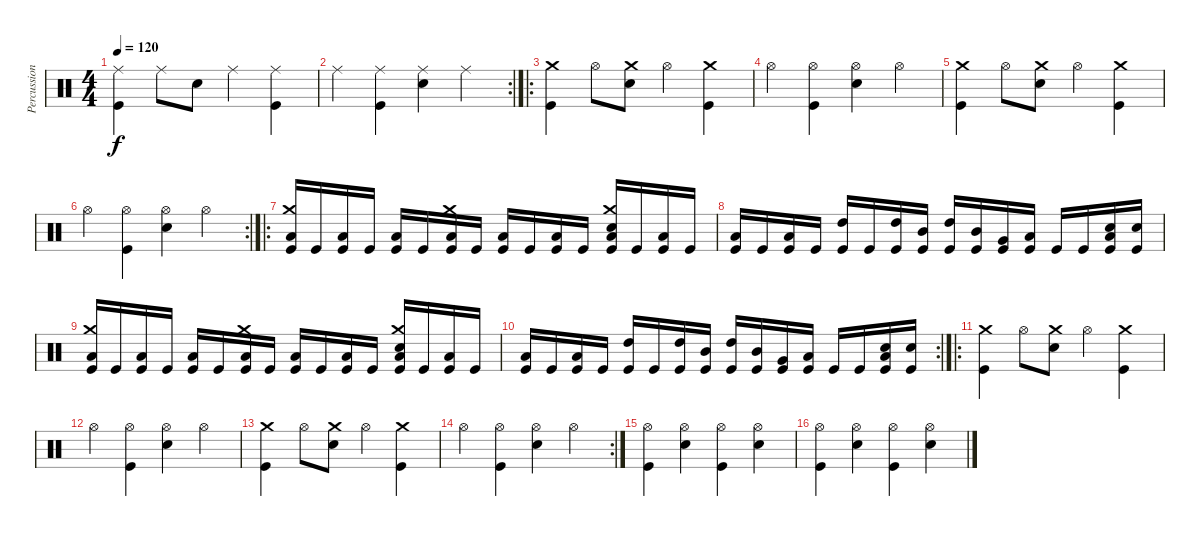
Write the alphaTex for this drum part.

\track ("Percussion" "Percussion") {instrument percussion}
\staff {score}
\articulation defaults
\ts (4 4)
\tempo 120
\clef neutral
\ks c
("Ride (middle)" "Kick (hit)").4{dy f} "Ride (middle)".8 "Snare (hit) 2".8 "Ride (middle)".4 ("Ride (middle)" "Kick (hit)").4 |
\rc 2 "Ride (middle)".4
("Ride (middle)" "Kick (hit)").4 ("Ride (middle)" "Snare (hit) 2").4 "Ride (middle)".4 |
\ro
("Crash medium (hit)" "Kick (hit)").4 "Hi-Hat (open)".8 ("Crash medium (hit)" "Snare (hit) 2").8 "Hi-Hat (open)".4 ("Crash medium (hit)" "Kick (hit)").4 |
"Hi-Hat (open)".4 ("Hi-Hat (open)" "Kick (hit)").4 ("Hi-Hat (open)" "Snare (hit) 2").4 "Hi-Hat (open)".4 |
("Crash medium (hit)" "Kick (hit)").4 "Hi-Hat (open)".8 ("Crash medium (hit)" "Snare (hit) 2").8 "Hi-Hat (open)".4 ("Crash medium (hit)" "Kick (hit)").4 |
\rc 2 "Hi-Hat (open)".4
("Hi-Hat (open)" "Kick (hit)").4 ("Hi-Hat (open)" "Snare (hit) 2").4 "Hi-Hat (open)".4 |
\ro
("Crash medium (hit)" "Low Floor Tom (hit)" "Kick (hit)").16 "Kick (hit)".16 ("Low Floor Tom (hit)" "Kick (hit)").16 "Kick (hit)".16 ("Low Floor Tom (hit)" "Kick (hit)").16 "Kick (hit)".16 ("Crash medium (hit)" "Low Floor Tom (hit)" "Kick (hit)").16 "Kick (hit)".16 ("Low Floor Tom (hit)" "Kick (hit)").16 "Kick (hit)".16 ("Low Floor Tom (hit)" "Kick (hit)").16 "Kick (hit)".16 ("Crash medium (hit)" "Snare (hit) 2" "Low Floor Tom (hit)" "Kick (hit)").16 "Kick (hit)".16 ("Low Floor Tom (hit)" "Kick (hit)").16 "Kick (hit)".16 |
("Low Floor Tom (hit)" "Kick (hit)").16 "Kick (hit)".16 ("Low Floor Tom (hit)" "Kick (hit)").16 "Kick (hit)".16 ("High Tom (hit)" "Kick (hit)").16 "Kick (hit)".16 ("High Tom (hit)" "Kick (hit)").16 ("Mid Tom (hit)" "Kick (hit)").16 ("High Tom (hit)" "Kick (hit)").16 ("Mid Tom (hit)" "Kick (hit)").16 ("Very Low Tom (hit)" "Kick (hit)").16 ("Low Floor Tom (hit)" "Kick (hit)").16 "Kick (hit)".16 "Kick (hit)".16 ("Snare (hit) 2" "Low Floor Tom (hit)" "Kick (hit)").16 ("Snare (hit) 2" "Kick (hit)").16 |
("Crash medium (hit)" "Low Floor Tom (hit)" "Kick (hit)").16 "Kick (hit)".16 ("Low Floor Tom (hit)" "Kick (hit)").16 "Kick (hit)".16 ("Low Floor Tom (hit)" "Kick (hit)").16 "Kick (hit)".16 ("Crash medium (hit)" "Low Floor Tom (hit)" "Kick (hit)").16 "Kick (hit)".16 ("Low Floor Tom (hit)" "Kick (hit)").16 "Kick (hit)".16 ("Low Floor Tom (hit)" "Kick (hit)").16 "Kick (hit)".16 ("Crash medium (hit)" "Snare (hit) 2" "Low Floor Tom (hit)" "Kick (hit)").16 "Kick (hit)".16 ("Low Floor Tom (hit)" "Kick (hit)").16 "Kick (hit)".16 |
\rc 2
("Low Floor Tom (hit)" "Kick (hit)").16 "Kick (hit)".16 ("Low Floor Tom (hit)" "Kick (hit)").16 "Kick (hit)".16 ("High Tom (hit)" "Kick (hit)").16 "Kick (hit)".16 ("High Tom (hit)" "Kick (hit)").16 ("Mid Tom (hit)" "Kick (hit)").16 ("High Tom (hit)" "Kick (hit)").16 ("Mid Tom (hit)" "Kick (hit)").16 ("Very Low Tom (hit)" "Kick (hit)").16 ("Low Floor Tom (hit)" "Kick (hit)").16 "Kick (hit)".16 "Kick (hit)".16 ("Snare (hit) 2" "Low Floor Tom (hit)" "Kick (hit)").16 ("Snare (hit) 2" "Kick (hit)").16 |
\ro
("Crash medium (hit)" "Kick (hit)").4 "Hi-Hat (open)".8 ("Crash medium (hit)" "Snare (hit) 2").8 "Hi-Hat (open)".4 ("Crash medium (hit)" "Kick (hit)").4 |
"Hi-Hat (open)".4 ("Hi-Hat (open)" "Kick (hit)").4 ("Hi-Hat (open)" "Snare (hit) 2").4 "Hi-Hat (open)".4 |
("Crash medium (hit)" "Kick (hit)").4 "Hi-Hat (open)".8 ("Crash medium (hit)" "Snare (hit) 2").8 "Hi-Hat (open)".4 ("Crash medium (hit)" "Kick (hit)").4 |
\rc 2 "Hi-Hat (open)".4
("Hi-Hat (open)" "Kick (hit)").4 ("Hi-Hat (open)" "Snare (hit) 2").4 "Hi-Hat (open)".4 |
("Hi-Hat (open)" "Kick (hit)").4 ("Hi-Hat (open)" "Snare (hit) 2").4 ("Hi-Hat (open)" "Kick (hit)").4 ("Hi-Hat (open)" "Snare (hit) 2").4 |
("Hi-Hat (open)" "Kick (hit)").4 ("Hi-Hat (open)" "Snare (hit) 2").4 ("Hi-Hat (open)" "Kick (hit)").4 ("Hi-Hat (open)" "Snare (hit) 2").4
